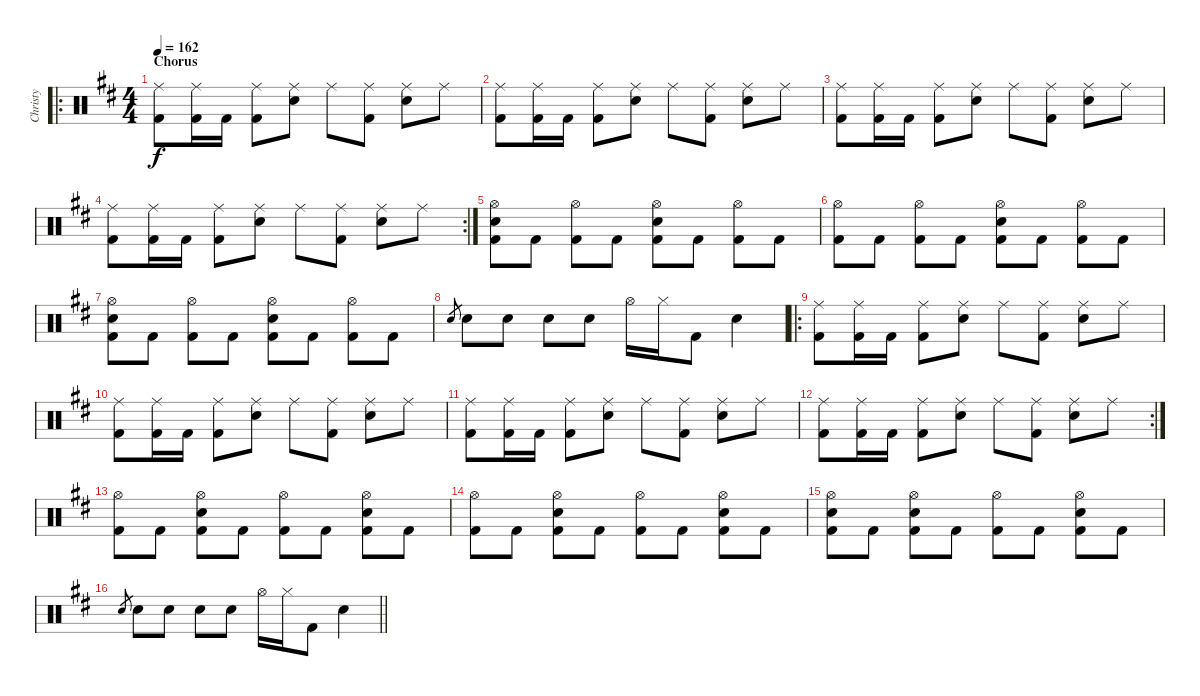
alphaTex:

\track ("Christy" "Christy") {instrument percussion}
\staff {score}
\articulation defaults
\ro
\ts (4 4)
\section ("" "Chorus")
\tempo 162
\clef neutral
\ks d
("Ride (middle)" "Kick (hit) 2").8{dy f} ("Ride (middle)" "Kick (hit) 2").16 "Kick (hit) 2".16 ("Ride (middle)" "Kick (hit) 2").8 ("Ride (middle)" "Snare (hit) 2").8 "Ride (middle)".8 ("Ride (middle)" "Kick (hit) 2").8 ("Ride (middle)" "Snare (hit) 2").8 "Ride (middle)".8 |
("Ride (middle)" "Kick (hit) 2").8 ("Ride (middle)" "Kick (hit) 2").16 "Kick (hit) 2".16 ("Ride (middle)" "Kick (hit) 2").8 ("Ride (middle)" "Snare (hit) 2").8 "Ride (middle)".8 ("Ride (middle)" "Kick (hit) 2").8 ("Ride (middle)" "Snare (hit) 2").8 "Ride (middle)".8 |
("Ride (middle)" "Kick (hit) 2").8 ("Ride (middle)" "Kick (hit) 2").16 "Kick (hit) 2".16 ("Ride (middle)" "Kick (hit) 2").8 ("Ride (middle)" "Snare (hit) 2").8 "Ride (middle)".8 ("Ride (middle)" "Kick (hit) 2").8 ("Ride (middle)" "Snare (hit) 2").8 "Ride (middle)".8 |
\rc 2
("Ride (middle)" "Kick (hit) 2").8 ("Ride (middle)" "Kick (hit) 2").16 "Kick (hit) 2".16 ("Ride (middle)" "Kick (hit) 2").8 ("Ride (middle)" "Snare (hit) 2").8 "Ride (middle)".8 ("Ride (middle)" "Kick (hit) 2").8 ("Ride (middle)" "Snare (hit) 2").8 "Ride (middle)".8 |
("Hi-Hat (open)" "Snare (hit) 2" "Kick (hit) 2").8 "Kick (hit) 2".8 ("Hi-Hat (open)" "Kick (hit) 2").8 "Kick (hit) 2".8 ("Hi-Hat (open)" "Snare (hit) 2" "Kick (hit) 2").8 "Kick (hit) 2".8 ("Hi-Hat (open)" "Kick (hit) 2").8 "Kick (hit) 2".8 |
("Hi-Hat (open)" "Kick (hit) 2").8 "Kick (hit) 2".8 ("Hi-Hat (open)" "Kick (hit) 2").8 "Kick (hit) 2".8 ("Hi-Hat (open)" "Snare (hit) 2" "Kick (hit) 2").8 "Kick (hit) 2".8 ("Hi-Hat (open)" "Kick (hit) 2").8 "Kick (hit) 2".8 |
("Hi-Hat (open)" "Snare (hit) 2" "Kick (hit) 2").8 "Kick (hit) 2".8 ("Hi-Hat (open)" "Kick (hit) 2").8 "Kick (hit) 2".8 ("Hi-Hat (open)" "Snare (hit) 2" "Kick (hit) 2").8 "Kick (hit) 2".8 ("Hi-Hat (open)" "Kick (hit) 2").8 "Kick (hit) 2".8 |
"Snare (hit) 2".8{gr} "Snare (hit) 2".8 "Snare (hit) 2".8 "Snare (hit) 2".8 "Snare (hit) 2".8 "Hi-Hat (open)".16 "Hi-Hat (closed)".16 "Kick (hit) 2".8 "Snare (hit) 2".4 |
\ro
("Ride (middle)" "Kick (hit) 2").8 ("Ride (middle)" "Kick (hit) 2").16 "Kick (hit) 2".16 ("Ride (middle)" "Kick (hit) 2").8 ("Ride (middle)" "Snare (hit) 2").8 "Ride (middle)".8 ("Ride (middle)" "Kick (hit) 2").8 ("Ride (middle)" "Snare (hit) 2").8 "Ride (middle)".8 |
("Ride (middle)" "Kick (hit) 2").8 ("Ride (middle)" "Kick (hit) 2").16 "Kick (hit) 2".16 ("Ride (middle)" "Kick (hit) 2").8 ("Ride (middle)" "Snare (hit) 2").8 "Ride (middle)".8 ("Ride (middle)" "Kick (hit) 2").8 ("Ride (middle)" "Snare (hit) 2").8 "Ride (middle)".8 |
("Ride (middle)" "Kick (hit) 2").8 ("Ride (middle)" "Kick (hit) 2").16 "Kick (hit) 2".16 ("Ride (middle)" "Kick (hit) 2").8 ("Ride (middle)" "Snare (hit) 2").8 "Ride (middle)".8 ("Ride (middle)" "Kick (hit) 2").8 ("Ride (middle)" "Snare (hit) 2").8 "Ride (middle)".8 |
\rc 2
("Ride (middle)" "Kick (hit) 2").8 ("Ride (middle)" "Kick (hit) 2").16 "Kick (hit) 2".16 ("Ride (middle)" "Kick (hit) 2").8 ("Ride (middle)" "Snare (hit) 2").8 "Ride (middle)".8 ("Ride (middle)" "Kick (hit) 2").8 ("Ride (middle)" "Snare (hit) 2").8 "Ride (middle)".8 |
("Hi-Hat (open)" "Kick (hit) 2").8 "Kick (hit) 2".8 ("Hi-Hat (open)" "Snare (hit) 2" "Kick (hit) 2").8 "Kick (hit) 2".8 ("Hi-Hat (open)" "Kick (hit) 2").8 "Kick (hit) 2".8 ("Hi-Hat (open)" "Snare (hit) 2" "Kick (hit) 2").8 "Kick (hit) 2".8 |
("Hi-Hat (open)" "Kick (hit) 2").8 "Kick (hit) 2".8 ("Hi-Hat (open)" "Snare (hit) 2" "Kick (hit) 2").8 "Kick (hit) 2".8 ("Hi-Hat (open)" "Kick (hit) 2").8 "Kick (hit) 2".8 ("Hi-Hat (open)" "Snare (hit) 2" "Kick (hit) 2").8 "Kick (hit) 2".8 |
("Hi-Hat (open)" "Snare (hit) 2" "Kick (hit) 2").8 "Kick (hit) 2".8 ("Hi-Hat (open)" "Snare (hit) 2" "Kick (hit) 2").8 "Kick (hit) 2".8 ("Hi-Hat (open)" "Kick (hit) 2").8 "Kick (hit) 2".8 ("Hi-Hat (open)" "Snare (hit) 2" "Kick (hit) 2").8 "Kick (hit) 2".8 |
\barLineRight lightlight "Snare (hit) 2".8{gr} "Snare (hit) 2".8 "Snare (hit) 2".8 "Snare (hit) 2".8 "Snare (hit) 2".8 "Hi-Hat (open)".16 "Hi-Hat (closed)".16 "Kick (hit) 2".8 "Snare (hit) 2".4
